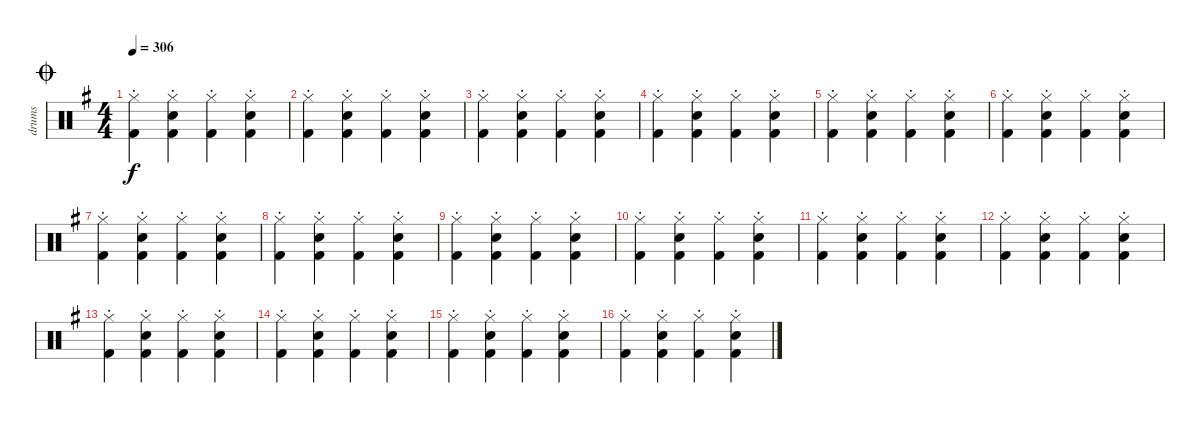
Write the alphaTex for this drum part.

\track ("drums" "drums") {instrument percussion}
\staff {score}
\articulation defaults
\ts (4 4)
\jump coda
\tempo 306
\clef neutral
\ks g
("Hi-Hat (closed)"{st} "Kick (hit) 2").4{dy f} ("Hi-Hat (closed)"{st} "Electric Snare (hit)" "Kick (hit) 2").4 ("Hi-Hat (closed)"{st} "Kick (hit) 2").4 ("Hi-Hat (closed)"{st} "Electric Snare (hit)" "Kick (hit) 2").4 |
("Hi-Hat (closed)"{st} "Kick (hit) 2").4 ("Hi-Hat (closed)"{st} "Electric Snare (hit)" "Kick (hit) 2").4 ("Hi-Hat (closed)"{st} "Kick (hit) 2").4 ("Hi-Hat (closed)"{st} "Electric Snare (hit)" "Kick (hit) 2").4 |
("Hi-Hat (closed)"{st} "Kick (hit) 2").4 ("Hi-Hat (closed)"{st} "Electric Snare (hit)" "Kick (hit) 2").4 ("Hi-Hat (closed)"{st} "Kick (hit) 2").4 ("Hi-Hat (closed)"{st} "Electric Snare (hit)" "Kick (hit) 2").4 |
("Hi-Hat (closed)"{st} "Kick (hit) 2").4 ("Hi-Hat (closed)"{st} "Electric Snare (hit)" "Kick (hit) 2").4 ("Hi-Hat (closed)"{st} "Kick (hit) 2").4 ("Hi-Hat (closed)"{st} "Electric Snare (hit)" "Kick (hit) 2").4 |
("Hi-Hat (closed)"{st} "Kick (hit) 2").4 ("Hi-Hat (closed)"{st} "Electric Snare (hit)" "Kick (hit) 2").4 ("Hi-Hat (closed)"{st} "Kick (hit) 2").4 ("Hi-Hat (closed)"{st} "Electric Snare (hit)" "Kick (hit) 2").4 |
("Hi-Hat (closed)"{st} "Kick (hit) 2").4 ("Hi-Hat (closed)"{st} "Electric Snare (hit)" "Kick (hit) 2").4 ("Hi-Hat (closed)"{st} "Kick (hit) 2").4 ("Hi-Hat (closed)"{st} "Electric Snare (hit)" "Kick (hit) 2").4 |
("Hi-Hat (closed)"{st} "Kick (hit) 2").4 ("Hi-Hat (closed)"{st} "Electric Snare (hit)" "Kick (hit) 2").4 ("Hi-Hat (closed)"{st} "Kick (hit) 2").4 ("Hi-Hat (closed)"{st} "Electric Snare (hit)" "Kick (hit) 2").4 |
("Hi-Hat (closed)"{st} "Kick (hit) 2").4 ("Hi-Hat (closed)"{st} "Electric Snare (hit)" "Kick (hit) 2").4 ("Hi-Hat (closed)"{st} "Kick (hit) 2").4 ("Hi-Hat (closed)"{st} "Electric Snare (hit)" "Kick (hit) 2").4 |
("Hi-Hat (closed)"{st} "Kick (hit) 2").4 ("Hi-Hat (closed)"{st} "Electric Snare (hit)" "Kick (hit) 2").4 ("Hi-Hat (closed)"{st} "Kick (hit) 2").4 ("Hi-Hat (closed)"{st} "Electric Snare (hit)" "Kick (hit) 2").4 |
("Hi-Hat (closed)"{st} "Kick (hit) 2").4 ("Hi-Hat (closed)"{st} "Electric Snare (hit)" "Kick (hit) 2").4 ("Hi-Hat (closed)"{st} "Kick (hit) 2").4 ("Hi-Hat (closed)"{st} "Electric Snare (hit)" "Kick (hit) 2").4 |
("Hi-Hat (closed)"{st} "Kick (hit) 2").4 ("Hi-Hat (closed)"{st} "Electric Snare (hit)" "Kick (hit) 2").4 ("Hi-Hat (closed)"{st} "Kick (hit) 2").4 ("Hi-Hat (closed)"{st} "Electric Snare (hit)" "Kick (hit) 2").4 |
("Hi-Hat (closed)"{st} "Kick (hit) 2").4 ("Hi-Hat (closed)"{st} "Electric Snare (hit)" "Kick (hit) 2").4 ("Hi-Hat (closed)"{st} "Kick (hit) 2").4 ("Hi-Hat (closed)"{st} "Electric Snare (hit)" "Kick (hit) 2").4 |
("Hi-Hat (closed)"{st} "Kick (hit) 2").4 ("Hi-Hat (closed)"{st} "Electric Snare (hit)" "Kick (hit) 2").4 ("Hi-Hat (closed)"{st} "Kick (hit) 2").4 ("Hi-Hat (closed)"{st} "Electric Snare (hit)" "Kick (hit) 2").4 |
("Hi-Hat (closed)"{st} "Kick (hit) 2").4 ("Hi-Hat (closed)"{st} "Electric Snare (hit)" "Kick (hit) 2").4 ("Hi-Hat (closed)"{st} "Kick (hit) 2").4 ("Hi-Hat (closed)"{st} "Electric Snare (hit)" "Kick (hit) 2").4 |
("Hi-Hat (closed)"{st} "Kick (hit) 2").4 ("Hi-Hat (closed)"{st} "Electric Snare (hit)" "Kick (hit) 2").4 ("Hi-Hat (closed)"{st} "Kick (hit) 2").4 ("Hi-Hat (closed)"{st} "Electric Snare (hit)" "Kick (hit) 2").4 |
("Hi-Hat (closed)"{st} "Kick (hit) 2").4 ("Hi-Hat (closed)"{st} "Electric Snare (hit)" "Kick (hit) 2").4 ("Hi-Hat (closed)"{st} "Kick (hit) 2").4 ("Hi-Hat (closed)"{st} "Electric Snare (hit)" "Kick (hit) 2").4
